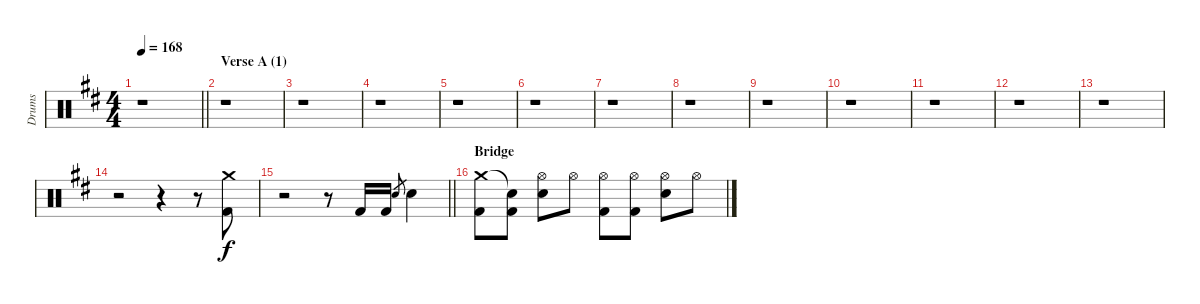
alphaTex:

\track ("Drums" "Drums") {instrument percussion}
\staff {score}
\articulation defaults
\ts (4 4)
\tempo 168
\clef neutral
\barLineRight lightlight
\ks d
r.1{dy f} |
\section ("" "Verse A (1)")
r.1 |
r.1 |
r.1 |
r.1 |
r.1 |
r.1 |
r.1 |
r.1 |
r.1 |
r.1 |
r.1 |
r.1 |
r.2 r.4 r.8 ("Crash medium (hit)" "Kick (hit) 2").8 |
\barLineRight lightlight
r.2 r.8 "Kick (hit) 2".16 "Kick (hit) 2".16 "Electric Snare (hit)".8{gr} "Electric Snare (hit)".4 |
\section ("" "Bridge")
("Crash medium (hit)" "Kick (hit) 2").8 ("Snare (hit)"{t} "Kick (hit) 2").8 ("Hi-Hat (open)" "Electric Snare (hit)").8 "Hi-Hat (open)".8 ("Hi-Hat (open)" "Kick (hit) 2").8 ("Hi-Hat (open)" "Kick (hit) 2").8 ("Hi-Hat (open)" "Electric Snare (hit)").8 "Hi-Hat (open)".8
